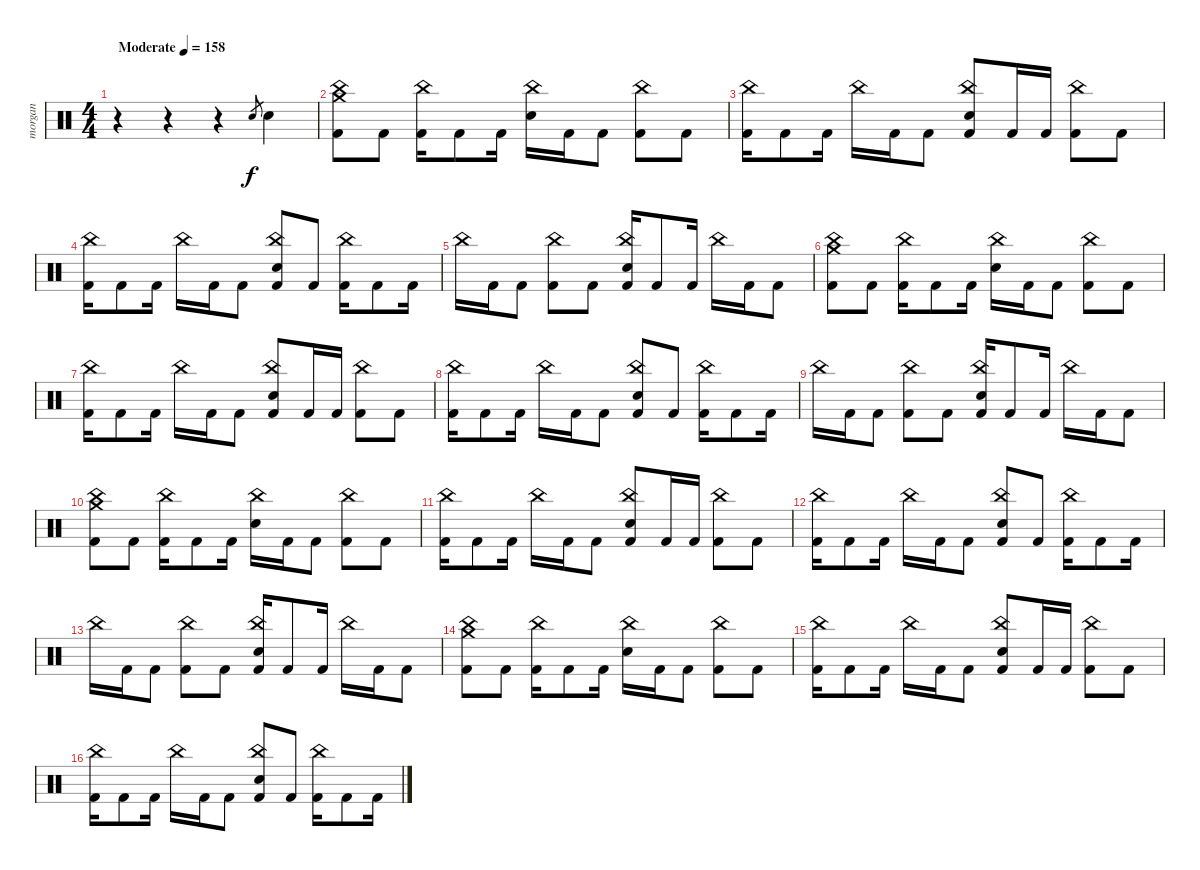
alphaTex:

\track ("morgan" "morgan") {instrument percussion}
\staff {score}
\articulation defaults
\ts (4 4)
\tempo (158 "Moderate")
\clef neutral
\ks c
r.4{dy f} r.4 r.4 "Electric Snare (hit)".8{gr} "Electric Snare (hit)".4 |
("Crash medium (hit)" "China (hit)" "Kick (hit) 2").8 "Kick (hit) 2".8 ("China (hit)" "Kick (hit) 2").16 "Kick (hit) 2".8 "Kick (hit) 2".16 ("China (hit)" "Electric Snare (hit)").16 "Kick (hit) 2".16 "Kick (hit) 2".8 ("China (hit)" "Kick (hit) 2").8 "Kick (hit) 2".8 |
("China (hit)" "Kick (hit) 2").16 "Kick (hit) 2".8 "Kick (hit) 2".16 "China (hit)".16 "Kick (hit) 2".16 "Kick (hit) 2".8 ("China (hit)" "Electric Snare (hit)" "Kick (hit) 2").8 "Kick (hit) 2".16 "Kick (hit) 2".16 ("China (hit)" "Kick (hit) 2").8 "Kick (hit) 2".8 |
("China (hit)" "Kick (hit) 2").16 "Kick (hit) 2".8 "Kick (hit) 2".16 "China (hit)".16 "Kick (hit) 2".16 "Kick (hit) 2".8 ("China (hit)" "Electric Snare (hit)" "Kick (hit) 2").8 "Kick (hit) 2".8 ("China (hit)" "Kick (hit) 2").16 "Kick (hit) 2".8 "Kick (hit) 2".16 |
"China (hit)".16 "Kick (hit) 2".16 "Kick (hit) 2".8 ("China (hit)" "Kick (hit) 2").8 "Kick (hit) 2".8 ("China (hit)" "Electric Snare (hit)" "Kick (hit) 2").16 "Kick (hit) 2".8 "Kick (hit) 2".16 "China (hit)".16 "Kick (hit) 2".16 "Kick (hit) 2".8 |
("Crash medium (hit)" "China (hit)" "Kick (hit) 2").8 "Kick (hit) 2".8 ("China (hit)" "Kick (hit) 2").16 "Kick (hit) 2".8 "Kick (hit) 2".16 ("China (hit)" "Electric Snare (hit)").16 "Kick (hit) 2".16 "Kick (hit) 2".8 ("China (hit)" "Kick (hit) 2").8 "Kick (hit) 2".8 |
("China (hit)" "Kick (hit) 2").16 "Kick (hit) 2".8 "Kick (hit) 2".16 "China (hit)".16 "Kick (hit) 2".16 "Kick (hit) 2".8 ("China (hit)" "Electric Snare (hit)" "Kick (hit) 2").8 "Kick (hit) 2".16 "Kick (hit) 2".16 ("China (hit)" "Kick (hit) 2").8 "Kick (hit) 2".8 |
("China (hit)" "Kick (hit) 2").16 "Kick (hit) 2".8 "Kick (hit) 2".16 "China (hit)".16 "Kick (hit) 2".16 "Kick (hit) 2".8 ("China (hit)" "Electric Snare (hit)" "Kick (hit) 2").8 "Kick (hit) 2".8 ("China (hit)" "Kick (hit) 2").16 "Kick (hit) 2".8 "Kick (hit) 2".16 |
"China (hit)".16 "Kick (hit) 2".16 "Kick (hit) 2".8 ("China (hit)" "Kick (hit) 2").8 "Kick (hit) 2".8 ("China (hit)" "Electric Snare (hit)" "Kick (hit) 2").16 "Kick (hit) 2".8 "Kick (hit) 2".16 "China (hit)".16 "Kick (hit) 2".16 "Kick (hit) 2".8 |
("Crash medium (hit)" "China (hit)" "Kick (hit) 2").8 "Kick (hit) 2".8 ("China (hit)" "Kick (hit) 2").16 "Kick (hit) 2".8 "Kick (hit) 2".16 ("China (hit)" "Electric Snare (hit)").16 "Kick (hit) 2".16 "Kick (hit) 2".8 ("China (hit)" "Kick (hit) 2").8 "Kick (hit) 2".8 |
("China (hit)" "Kick (hit) 2").16 "Kick (hit) 2".8 "Kick (hit) 2".16 "China (hit)".16 "Kick (hit) 2".16 "Kick (hit) 2".8 ("China (hit)" "Electric Snare (hit)" "Kick (hit) 2").8 "Kick (hit) 2".16 "Kick (hit) 2".16 ("China (hit)" "Kick (hit) 2").8 "Kick (hit) 2".8 |
("China (hit)" "Kick (hit) 2").16 "Kick (hit) 2".8 "Kick (hit) 2".16 "China (hit)".16 "Kick (hit) 2".16 "Kick (hit) 2".8 ("China (hit)" "Electric Snare (hit)" "Kick (hit) 2").8 "Kick (hit) 2".8 ("China (hit)" "Kick (hit) 2").16 "Kick (hit) 2".8 "Kick (hit) 2".16 |
"China (hit)".16 "Kick (hit) 2".16 "Kick (hit) 2".8 ("China (hit)" "Kick (hit) 2").8 "Kick (hit) 2".8 ("China (hit)" "Electric Snare (hit)" "Kick (hit) 2").16 "Kick (hit) 2".8 "Kick (hit) 2".16 "China (hit)".16 "Kick (hit) 2".16 "Kick (hit) 2".8 |
("Crash medium (hit)" "China (hit)" "Kick (hit) 2").8 "Kick (hit) 2".8 ("China (hit)" "Kick (hit) 2").16 "Kick (hit) 2".8 "Kick (hit) 2".16 ("China (hit)" "Electric Snare (hit)").16 "Kick (hit) 2".16 "Kick (hit) 2".8 ("China (hit)" "Kick (hit) 2").8 "Kick (hit) 2".8 |
("China (hit)" "Kick (hit) 2").16 "Kick (hit) 2".8 "Kick (hit) 2".16 "China (hit)".16 "Kick (hit) 2".16 "Kick (hit) 2".8 ("China (hit)" "Electric Snare (hit)" "Kick (hit) 2").8 "Kick (hit) 2".16 "Kick (hit) 2".16 ("China (hit)" "Kick (hit) 2").8 "Kick (hit) 2".8 |
("China (hit)" "Kick (hit) 2").16 "Kick (hit) 2".8 "Kick (hit) 2".16 "China (hit)".16 "Kick (hit) 2".16 "Kick (hit) 2".8 ("China (hit)" "Electric Snare (hit)" "Kick (hit) 2").8 "Kick (hit) 2".8 ("China (hit)" "Kick (hit) 2").16 "Kick (hit) 2".8 "Kick (hit) 2".16
